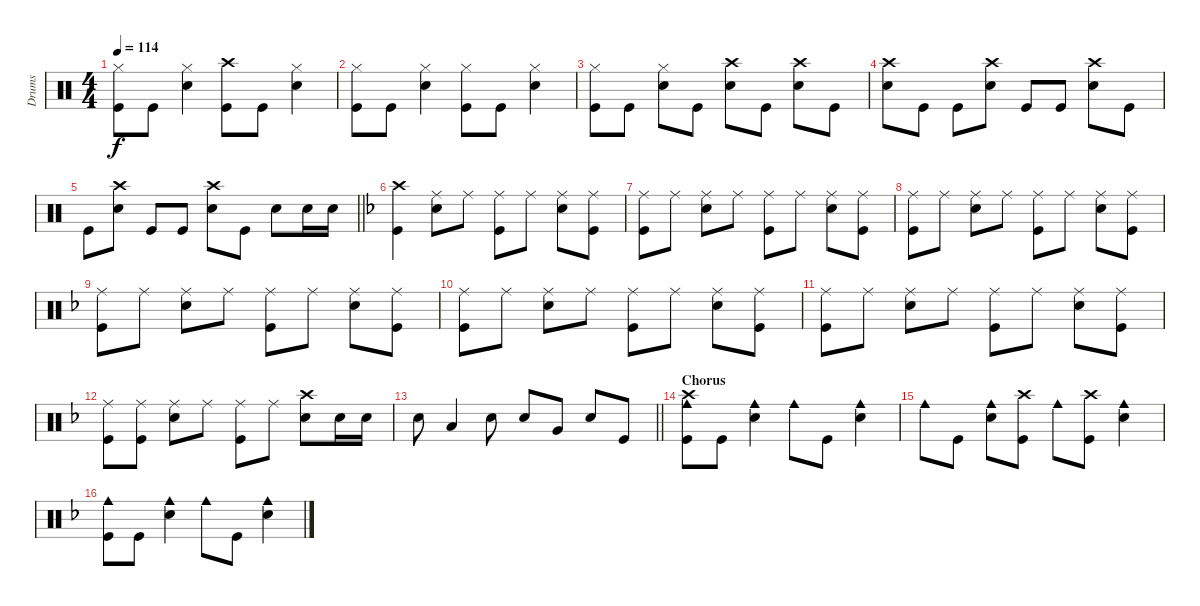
\track ("Drums" "Drums") {instrument percussion}
\staff {score}
\articulation defaults
\ts (4 4)
\tempo 114
\clef neutral
\ks c
("Hi-Hat (closed)" "Kick (hit)").8{dy f} "Kick (hit)".8 ("Hi-Hat (closed)" "Snare (hit) 2").4 ("Crash high (hit)" "Kick (hit)").8 "Kick (hit)".8 ("Hi-Hat (closed)" "Snare (hit) 2").4 |
("Hi-Hat (closed)" "Kick (hit)").8 "Kick (hit)".8 ("Hi-Hat (closed)" "Snare (hit) 2").4 ("Hi-Hat (closed)" "Kick (hit)").8 "Kick (hit)".8 ("Hi-Hat (closed)" "Snare (hit) 2").4 |
("Hi-Hat (closed)" "Kick (hit)").8 "Kick (hit)".8 ("Hi-Hat (closed)" "Snare (hit) 2").8 "Kick (hit)".8 ("Crash high (hit)" "Snare (hit) 2").8 "Kick (hit)".8 ("Crash high (hit)" "Snare (hit) 2").8 "Kick (hit)".8 |
("Crash high (hit)" "Snare (hit) 2").8 "Kick (hit)".8 "Kick (hit)".8 ("Crash high (hit)" "Snare (hit) 2").8 "Kick (hit)".8 "Kick (hit)".8 ("Crash high (hit)" "Snare (hit) 2").8 "Kick (hit)".8 |
\barLineRight lightlight "Kick (hit)".8
("Crash high (hit)" "Snare (hit) 2").8 "Kick (hit)".8 "Kick (hit)".8 ("Crash high (hit)" "Snare (hit) 2").8 "Kick (hit)".8 "Snare (hit) 2".8 "Snare (hit) 2".16 "Snare (hit) 2".16 |
\ks dminor
("Crash high (hit)" "Kick (hit)").4 ("Ride (middle)" "Snare (hit) 2").8 "Ride (middle)".8 ("Ride (middle)" "Kick (hit)").8 "Ride (middle)".8 ("Ride (middle)" "Snare (hit) 2").8 ("Ride (middle)" "Kick (hit)").8 |
("Ride (middle)" "Kick (hit)").8 "Ride (middle)".8 ("Ride (middle)" "Snare (hit) 2").8 "Ride (middle)".8 ("Ride (middle)" "Kick (hit)").8 "Ride (middle)".8 ("Ride (middle)" "Snare (hit) 2").8 ("Ride (middle)" "Kick (hit)").8 |
("Ride (middle)" "Kick (hit)").8 "Ride (middle)".8 ("Ride (middle)" "Snare (hit) 2").8 "Ride (middle)".8 ("Ride (middle)" "Kick (hit)").8 "Ride (middle)".8 ("Ride (middle)" "Snare (hit) 2").8 ("Ride (middle)" "Kick (hit)").8 |
("Ride (middle)" "Kick (hit)").8 "Ride (middle)".8 ("Ride (middle)" "Snare (hit) 2").8 "Ride (middle)".8 ("Ride (middle)" "Kick (hit)").8 "Ride (middle)".8 ("Ride (middle)" "Snare (hit) 2").8 ("Ride (middle)" "Kick (hit)").8 |
("Ride (middle)" "Kick (hit)").8 "Ride (middle)".8 ("Ride (middle)" "Snare (hit) 2").8 "Ride (middle)".8 ("Ride (middle)" "Kick (hit)").8 "Ride (middle)".8 ("Ride (middle)" "Snare (hit) 2").8 ("Ride (middle)" "Kick (hit)").8 |
("Ride (middle)" "Kick (hit)").8 "Ride (middle)".8 ("Ride (middle)" "Snare (hit) 2").8 "Ride (middle)".8 ("Ride (middle)" "Kick (hit)").8 "Ride (middle)".8 ("Ride (middle)" "Snare (hit) 2").8 ("Ride (middle)" "Kick (hit)").8 |
("Ride (middle)" "Kick (hit)").8 ("Ride (middle)" "Kick (hit)").8 ("Ride (middle)" "Snare (hit) 2").8 "Ride (middle)".8 ("Ride (middle)" "Kick (hit)").8 "Ride (middle)".8 ("Crash high (hit)" "Snare (hit) 2").8 "Snare (hit) 2".16 "Snare (hit) 2".16 |
\barLineRight lightlight "Snare (hit) 2".8 "Low Tom (hit)".4 "Snare (hit) 2".8 "Snare (hit) 2".8 "Very Low Tom (hit)".8 "Snare (hit) 2".8 "Kick (hit)".8
|
\section ("" "Chorus")
("Cowbell medium (hit)" "Crash high (hit)" "Kick (hit)").8 "Kick (hit)".8 ("Cowbell medium (hit)" "Snare (hit) 2").4 "Cowbell medium (hit)".8 "Kick (hit)".8 ("Cowbell medium (hit)" "Snare (hit) 2").4 |
"Cowbell medium (hit)".8 "Kick (hit)".8 ("Cowbell medium (hit)" "Snare (hit) 2").8 ("Crash high (hit)" "Kick (hit)").8 "Cowbell medium (hit)".8 ("Crash high (hit)" "Kick (hit)").8 ("Cowbell medium (hit)" "Snare (hit) 2").4 |
("Cowbell medium (hit)" "Kick (hit)").8 "Kick (hit)".8 ("Cowbell medium (hit)" "Snare (hit) 2").4 "Cowbell medium (hit)".8 "Kick (hit)".8 ("Cowbell medium (hit)" "Snare (hit) 2").4
